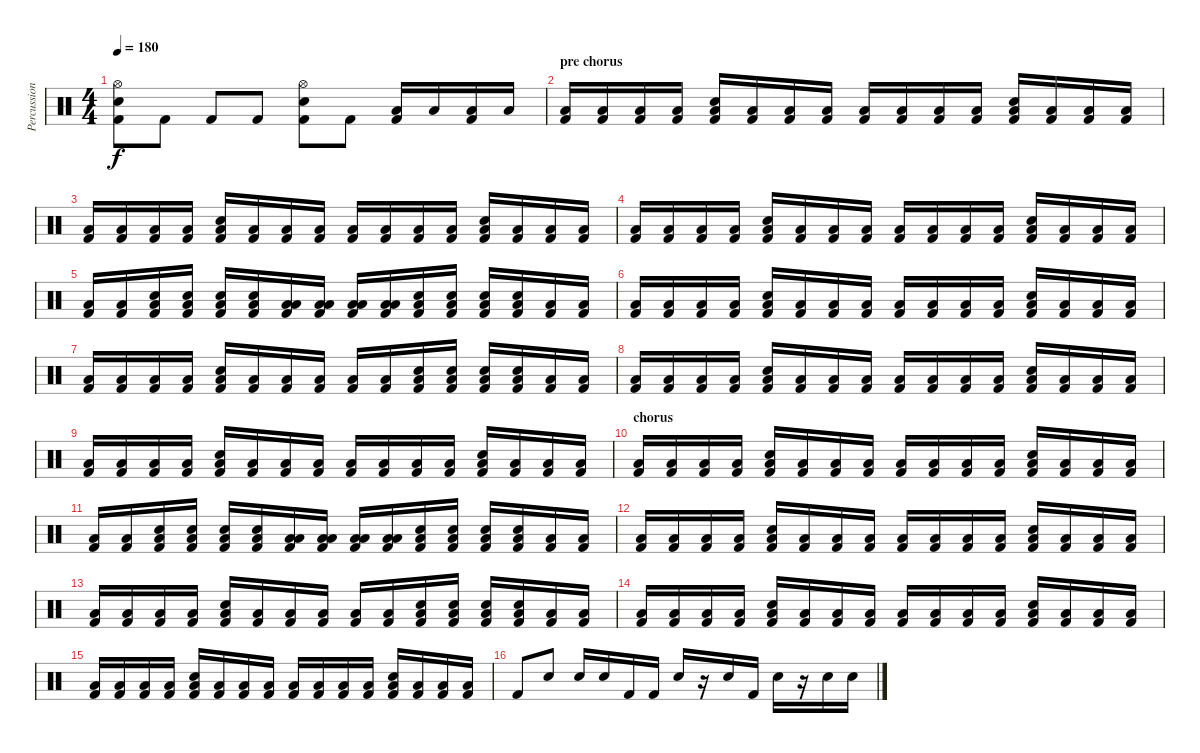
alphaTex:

\track ("Percussion" "Percussion") {instrument percussion}
\staff {score}
\articulation defaults
\ts (4 4)
\tempo 180
\clef neutral
\ks c
("Hi-Hat (open)" "Snare (hit) 2" "Kick (hit) 2").8{dy f} "Kick (hit) 2".8 "Kick (hit) 2".8 "Kick (hit) 2".8 ("Hi-Hat (open)" "Snare (hit) 2" "Kick (hit) 2").8 "Kick (hit) 2".8 ("Low Tom (hit)" "Kick (hit) 2").16 "Low Tom (hit)".16 ("Low Tom (hit)" "Kick (hit) 2").16 "Low Tom (hit)".16 |
\section ("" "pre chorus")
("Low Floor Tom (hit)" "Kick (hit) 2").16 ("Low Floor Tom (hit)" "Kick (hit) 2").16 ("Low Floor Tom (hit)" "Kick (hit) 2").16 ("Low Floor Tom (hit)" "Kick (hit) 2").16 ("Snare (hit) 2" "Low Floor Tom (hit)" "Kick (hit) 2").16 ("Low Floor Tom (hit)" "Kick (hit) 2").16 ("Low Floor Tom (hit)" "Kick (hit) 2").16 ("Low Floor Tom (hit)" "Kick (hit) 2").16 ("Low Floor Tom (hit)" "Kick (hit) 2").16 ("Low Floor Tom (hit)" "Kick (hit) 2").16 ("Low Floor Tom (hit)" "Kick (hit) 2").16 ("Low Floor Tom (hit)" "Kick (hit) 2").16 ("Snare (hit) 2" "Low Floor Tom (hit)" "Kick (hit) 2").16 ("Low Floor Tom (hit)" "Kick (hit) 2").16 ("Low Floor Tom (hit)" "Kick (hit) 2").16 ("Low Floor Tom (hit)" "Kick (hit) 2").16 |
("Low Floor Tom (hit)" "Kick (hit) 2").16 ("Low Floor Tom (hit)" "Kick (hit) 2").16 ("Low Floor Tom (hit)" "Kick (hit) 2").16 ("Low Floor Tom (hit)" "Kick (hit) 2").16 ("Snare (hit) 2" "Low Floor Tom (hit)" "Kick (hit) 2").16 ("Low Floor Tom (hit)" "Kick (hit) 2").16 ("Low Floor Tom (hit)" "Kick (hit) 2").16 ("Low Floor Tom (hit)" "Kick (hit) 2").16 ("Low Floor Tom (hit)" "Kick (hit) 2").16 ("Low Floor Tom (hit)" "Kick (hit) 2").16 ("Low Floor Tom (hit)" "Kick (hit) 2").16 ("Low Floor Tom (hit)" "Kick (hit) 2").16 ("Snare (hit) 2" "Low Floor Tom (hit)" "Kick (hit) 2").16 ("Low Floor Tom (hit)" "Kick (hit) 2").16 ("Low Floor Tom (hit)" "Kick (hit) 2").16 ("Low Floor Tom (hit)" "Kick (hit) 2").16 |
("Low Floor Tom (hit)" "Kick (hit) 2").16 ("Low Floor Tom (hit)" "Kick (hit) 2").16 ("Low Floor Tom (hit)" "Kick (hit) 2").16 ("Low Floor Tom (hit)" "Kick (hit) 2").16 ("Snare (hit) 2" "Low Floor Tom (hit)" "Kick (hit) 2").16 ("Low Floor Tom (hit)" "Kick (hit) 2").16 ("Low Floor Tom (hit)" "Kick (hit) 2").16 ("Low Floor Tom (hit)" "Kick (hit) 2").16 ("Low Floor Tom (hit)" "Kick (hit) 2").16 ("Low Floor Tom (hit)" "Kick (hit) 2").16 ("Low Floor Tom (hit)" "Kick (hit) 2").16 ("Low Floor Tom (hit)" "Kick (hit) 2").16 ("Snare (hit) 2" "Low Floor Tom (hit)" "Kick (hit) 2").16 ("Low Floor Tom (hit)" "Kick (hit) 2").16 ("Low Floor Tom (hit)" "Kick (hit) 2").16 ("Low Floor Tom (hit)" "Kick (hit) 2").16 |
("Low Floor Tom (hit)" "Kick (hit) 2").16 ("Low Floor Tom (hit)" "Kick (hit) 2").16 ("Snare (hit) 2" "Low Floor Tom (hit)" "Kick (hit) 2").16 ("Snare (hit) 2" "Low Floor Tom (hit)" "Kick (hit) 2").16 ("Snare (hit) 2" "Low Floor Tom (hit)" "Kick (hit) 2").16 ("Snare (hit) 2" "Low Floor Tom (hit)" "Kick (hit) 2").16 ("Low Tom (hit)" "Low Floor Tom (hit)" "Kick (hit) 2").16 ("Low Tom (hit)" "Low Floor Tom (hit)" "Kick (hit) 2").16 ("Low Tom (hit)" "Low Floor Tom (hit)" "Kick (hit) 2").16 ("Low Tom (hit)" "Low Floor Tom (hit)" "Kick (hit) 2").16 ("Snare (hit) 2" "Low Floor Tom (hit)" "Kick (hit) 2").16 ("Snare (hit) 2" "Low Floor Tom (hit)" "Kick (hit) 2").16 ("Snare (hit) 2" "Low Floor Tom (hit)" "Kick (hit) 2").16 ("Snare (hit) 2" "Low Floor Tom (hit)" "Kick (hit) 2").16 ("Low Floor Tom (hit)" "Kick (hit) 2").16 ("Low Floor Tom (hit)" "Kick (hit) 2").16 |
("Low Floor Tom (hit)" "Kick (hit) 2").16 ("Low Floor Tom (hit)" "Kick (hit) 2").16 ("Low Floor Tom (hit)" "Kick (hit) 2").16 ("Low Floor Tom (hit)" "Kick (hit) 2").16 ("Snare (hit) 2" "Low Floor Tom (hit)" "Kick (hit) 2").16 ("Low Floor Tom (hit)" "Kick (hit) 2").16 ("Low Floor Tom (hit)" "Kick (hit) 2").16 ("Low Floor Tom (hit)" "Kick (hit) 2").16 ("Low Floor Tom (hit)" "Kick (hit) 2").16 ("Low Floor Tom (hit)" "Kick (hit) 2").16 ("Low Floor Tom (hit)" "Kick (hit) 2").16 ("Low Floor Tom (hit)" "Kick (hit) 2").16 ("Snare (hit) 2" "Low Floor Tom (hit)" "Kick (hit) 2").16 ("Low Floor Tom (hit)" "Kick (hit) 2").16 ("Low Floor Tom (hit)" "Kick (hit) 2").16 ("Low Floor Tom (hit)" "Kick (hit) 2").16 |
("Low Floor Tom (hit)" "Kick (hit) 2").16 ("Low Floor Tom (hit)" "Kick (hit) 2").16 ("Low Floor Tom (hit)" "Kick (hit) 2").16 ("Low Floor Tom (hit)" "Kick (hit) 2").16 ("Snare (hit) 2" "Low Floor Tom (hit)" "Kick (hit) 2").16 ("Low Floor Tom (hit)" "Kick (hit) 2").16 ("Low Floor Tom (hit)" "Kick (hit) 2").16 ("Low Floor Tom (hit)" "Kick (hit) 2").16 ("Low Floor Tom (hit)" "Kick (hit) 2").16 ("Low Floor Tom (hit)" "Kick (hit) 2").16 ("Snare (hit) 2" "Low Floor Tom (hit)" "Kick (hit) 2").16 ("Snare (hit) 2" "Low Floor Tom (hit)" "Kick (hit) 2").16 ("Snare (hit) 2" "Low Floor Tom (hit)" "Kick (hit) 2").16 ("Snare (hit) 2" "Low Floor Tom (hit)" "Kick (hit) 2").16 ("Low Floor Tom (hit)" "Kick (hit) 2").16 ("Low Floor Tom (hit)" "Kick (hit) 2").16 |
("Low Floor Tom (hit)" "Kick (hit) 2").16 ("Low Floor Tom (hit)" "Kick (hit) 2").16 ("Low Floor Tom (hit)" "Kick (hit) 2").16 ("Low Floor Tom (hit)" "Kick (hit) 2").16 ("Snare (hit) 2" "Low Floor Tom (hit)" "Kick (hit) 2").16 ("Low Floor Tom (hit)" "Kick (hit) 2").16 ("Low Floor Tom (hit)" "Kick (hit) 2").16 ("Low Floor Tom (hit)" "Kick (hit) 2").16 ("Low Floor Tom (hit)" "Kick (hit) 2").16 ("Low Floor Tom (hit)" "Kick (hit) 2").16 ("Low Floor Tom (hit)" "Kick (hit) 2").16 ("Low Floor Tom (hit)" "Kick (hit) 2").16 ("Snare (hit) 2" "Low Floor Tom (hit)" "Kick (hit) 2").16 ("Low Floor Tom (hit)" "Kick (hit) 2").16 ("Low Floor Tom (hit)" "Kick (hit) 2").16 ("Low Floor Tom (hit)" "Kick (hit) 2").16 |
("Low Floor Tom (hit)" "Kick (hit) 2").16 ("Low Floor Tom (hit)" "Kick (hit) 2").16 ("Low Floor Tom (hit)" "Kick (hit) 2").16 ("Low Floor Tom (hit)" "Kick (hit) 2").16 ("Snare (hit) 2" "Low Floor Tom (hit)" "Kick (hit) 2").16 ("Low Floor Tom (hit)" "Kick (hit) 2").16 ("Low Floor Tom (hit)" "Kick (hit) 2").16 ("Low Floor Tom (hit)" "Kick (hit) 2").16 ("Low Floor Tom (hit)" "Kick (hit) 2").16 ("Low Floor Tom (hit)" "Kick (hit) 2").16 ("Low Floor Tom (hit)" "Kick (hit) 2").16 ("Low Floor Tom (hit)" "Kick (hit) 2").16 ("Snare (hit) 2" "Low Floor Tom (hit)" "Kick (hit) 2").16 ("Low Floor Tom (hit)" "Kick (hit) 2").16 ("Low Floor Tom (hit)" "Kick (hit) 2").16 ("Low Floor Tom (hit)" "Kick (hit) 2").16 |
\section ("" "chorus")
("Low Floor Tom (hit)" "Kick (hit) 2").16 ("Low Floor Tom (hit)" "Kick (hit) 2").16 ("Low Floor Tom (hit)" "Kick (hit) 2").16 ("Low Floor Tom (hit)" "Kick (hit) 2").16 ("Snare (hit) 2" "Low Floor Tom (hit)" "Kick (hit) 2").16 ("Low Floor Tom (hit)" "Kick (hit) 2").16 ("Low Floor Tom (hit)" "Kick (hit) 2").16 ("Low Floor Tom (hit)" "Kick (hit) 2").16 ("Low Floor Tom (hit)" "Kick (hit) 2").16 ("Low Floor Tom (hit)" "Kick (hit) 2").16 ("Low Floor Tom (hit)" "Kick (hit) 2").16 ("Low Floor Tom (hit)" "Kick (hit) 2").16 ("Snare (hit) 2" "Low Floor Tom (hit)" "Kick (hit) 2").16 ("Low Floor Tom (hit)" "Kick (hit) 2").16 ("Low Floor Tom (hit)" "Kick (hit) 2").16 ("Low Floor Tom (hit)" "Kick (hit) 2").16 |
("Low Floor Tom (hit)" "Kick (hit) 2").16 ("Low Floor Tom (hit)" "Kick (hit) 2").16 ("Snare (hit) 2" "Low Floor Tom (hit)" "Kick (hit) 2").16 ("Snare (hit) 2" "Low Floor Tom (hit)" "Kick (hit) 2").16 ("Snare (hit) 2" "Low Floor Tom (hit)" "Kick (hit) 2").16 ("Snare (hit) 2" "Low Floor Tom (hit)" "Kick (hit) 2").16 ("Low Tom (hit)" "Low Floor Tom (hit)" "Kick (hit) 2").16 ("Low Tom (hit)" "Low Floor Tom (hit)" "Kick (hit) 2").16 ("Low Tom (hit)" "Low Floor Tom (hit)" "Kick (hit) 2").16 ("Low Tom (hit)" "Low Floor Tom (hit)" "Kick (hit) 2").16 ("Snare (hit) 2" "Low Floor Tom (hit)" "Kick (hit) 2").16 ("Snare (hit) 2" "Low Floor Tom (hit)" "Kick (hit) 2").16 ("Snare (hit) 2" "Low Floor Tom (hit)" "Kick (hit) 2").16 ("Snare (hit) 2" "Low Floor Tom (hit)" "Kick (hit) 2").16 ("Low Floor Tom (hit)" "Kick (hit) 2").16 ("Low Floor Tom (hit)" "Kick (hit) 2").16 |
("Low Floor Tom (hit)" "Kick (hit) 2").16 ("Low Floor Tom (hit)" "Kick (hit) 2").16 ("Low Floor Tom (hit)" "Kick (hit) 2").16 ("Low Floor Tom (hit)" "Kick (hit) 2").16 ("Snare (hit) 2" "Low Floor Tom (hit)" "Kick (hit) 2").16 ("Low Floor Tom (hit)" "Kick (hit) 2").16 ("Low Floor Tom (hit)" "Kick (hit) 2").16 ("Low Floor Tom (hit)" "Kick (hit) 2").16 ("Low Floor Tom (hit)" "Kick (hit) 2").16 ("Low Floor Tom (hit)" "Kick (hit) 2").16 ("Low Floor Tom (hit)" "Kick (hit) 2").16 ("Low Floor Tom (hit)" "Kick (hit) 2").16 ("Snare (hit) 2" "Low Floor Tom (hit)" "Kick (hit) 2").16 ("Low Floor Tom (hit)" "Kick (hit) 2").16 ("Low Floor Tom (hit)" "Kick (hit) 2").16 ("Low Floor Tom (hit)" "Kick (hit) 2").16 |
("Low Floor Tom (hit)" "Kick (hit) 2").16 ("Low Floor Tom (hit)" "Kick (hit) 2").16 ("Low Floor Tom (hit)" "Kick (hit) 2").16 ("Low Floor Tom (hit)" "Kick (hit) 2").16 ("Snare (hit) 2" "Low Floor Tom (hit)" "Kick (hit) 2").16 ("Low Floor Tom (hit)" "Kick (hit) 2").16 ("Low Floor Tom (hit)" "Kick (hit) 2").16 ("Low Floor Tom (hit)" "Kick (hit) 2").16 ("Low Floor Tom (hit)" "Kick (hit) 2").16 ("Low Floor Tom (hit)" "Kick (hit) 2").16 ("Snare (hit) 2" "Low Floor Tom (hit)" "Kick (hit) 2").16 ("Snare (hit) 2" "Low Floor Tom (hit)" "Kick (hit) 2").16 ("Snare (hit) 2" "Low Floor Tom (hit)" "Kick (hit) 2").16 ("Snare (hit) 2" "Low Floor Tom (hit)" "Kick (hit) 2").16 ("Low Floor Tom (hit)" "Kick (hit) 2").16 ("Low Floor Tom (hit)" "Kick (hit) 2").16 |
("Low Floor Tom (hit)" "Kick (hit) 2").16 ("Low Floor Tom (hit)" "Kick (hit) 2").16 ("Low Floor Tom (hit)" "Kick (hit) 2").16 ("Low Floor Tom (hit)" "Kick (hit) 2").16 ("Snare (hit) 2" "Low Floor Tom (hit)" "Kick (hit) 2").16 ("Low Floor Tom (hit)" "Kick (hit) 2").16 ("Low Floor Tom (hit)" "Kick (hit) 2").16 ("Low Floor Tom (hit)" "Kick (hit) 2").16 ("Low Floor Tom (hit)" "Kick (hit) 2").16 ("Low Floor Tom (hit)" "Kick (hit) 2").16 ("Low Floor Tom (hit)" "Kick (hit) 2").16 ("Low Floor Tom (hit)" "Kick (hit) 2").16 ("Snare (hit) 2" "Low Floor Tom (hit)" "Kick (hit) 2").16 ("Low Floor Tom (hit)" "Kick (hit) 2").16 ("Low Floor Tom (hit)" "Kick (hit) 2").16 ("Low Floor Tom (hit)" "Kick (hit) 2").16 |
("Low Floor Tom (hit)" "Kick (hit) 2").16 ("Low Floor Tom (hit)" "Kick (hit) 2").16 ("Low Floor Tom (hit)" "Kick (hit) 2").16 ("Low Floor Tom (hit)" "Kick (hit) 2").16 ("Snare (hit) 2" "Low Floor Tom (hit)" "Kick (hit) 2").16 ("Low Floor Tom (hit)" "Kick (hit) 2").16 ("Low Floor Tom (hit)" "Kick (hit) 2").16 ("Low Floor Tom (hit)" "Kick (hit) 2").16 ("Low Floor Tom (hit)" "Kick (hit) 2").16 ("Low Floor Tom (hit)" "Kick (hit) 2").16 ("Low Floor Tom (hit)" "Kick (hit) 2").16 ("Low Floor Tom (hit)" "Kick (hit) 2").16 ("Snare (hit) 2" "Low Floor Tom (hit)" "Kick (hit) 2").16 ("Low Floor Tom (hit)" "Kick (hit) 2").16 ("Low Floor Tom (hit)" "Kick (hit) 2").16 ("Low Floor Tom (hit)" "Kick (hit) 2").16 |
"Kick (hit) 2".8 "Snare (hit) 2".8 "Snare (hit) 2".16 "Snare (hit) 2".16 "Kick (hit) 2".16 "Kick (hit) 2".16 "Snare (hit) 2".16 r.16 "Snare (hit) 2".16 "Kick (hit) 2".16 "Snare (hit) 2".16 r.16 "Snare (hit) 2".16 "Snare (hit) 2".16
